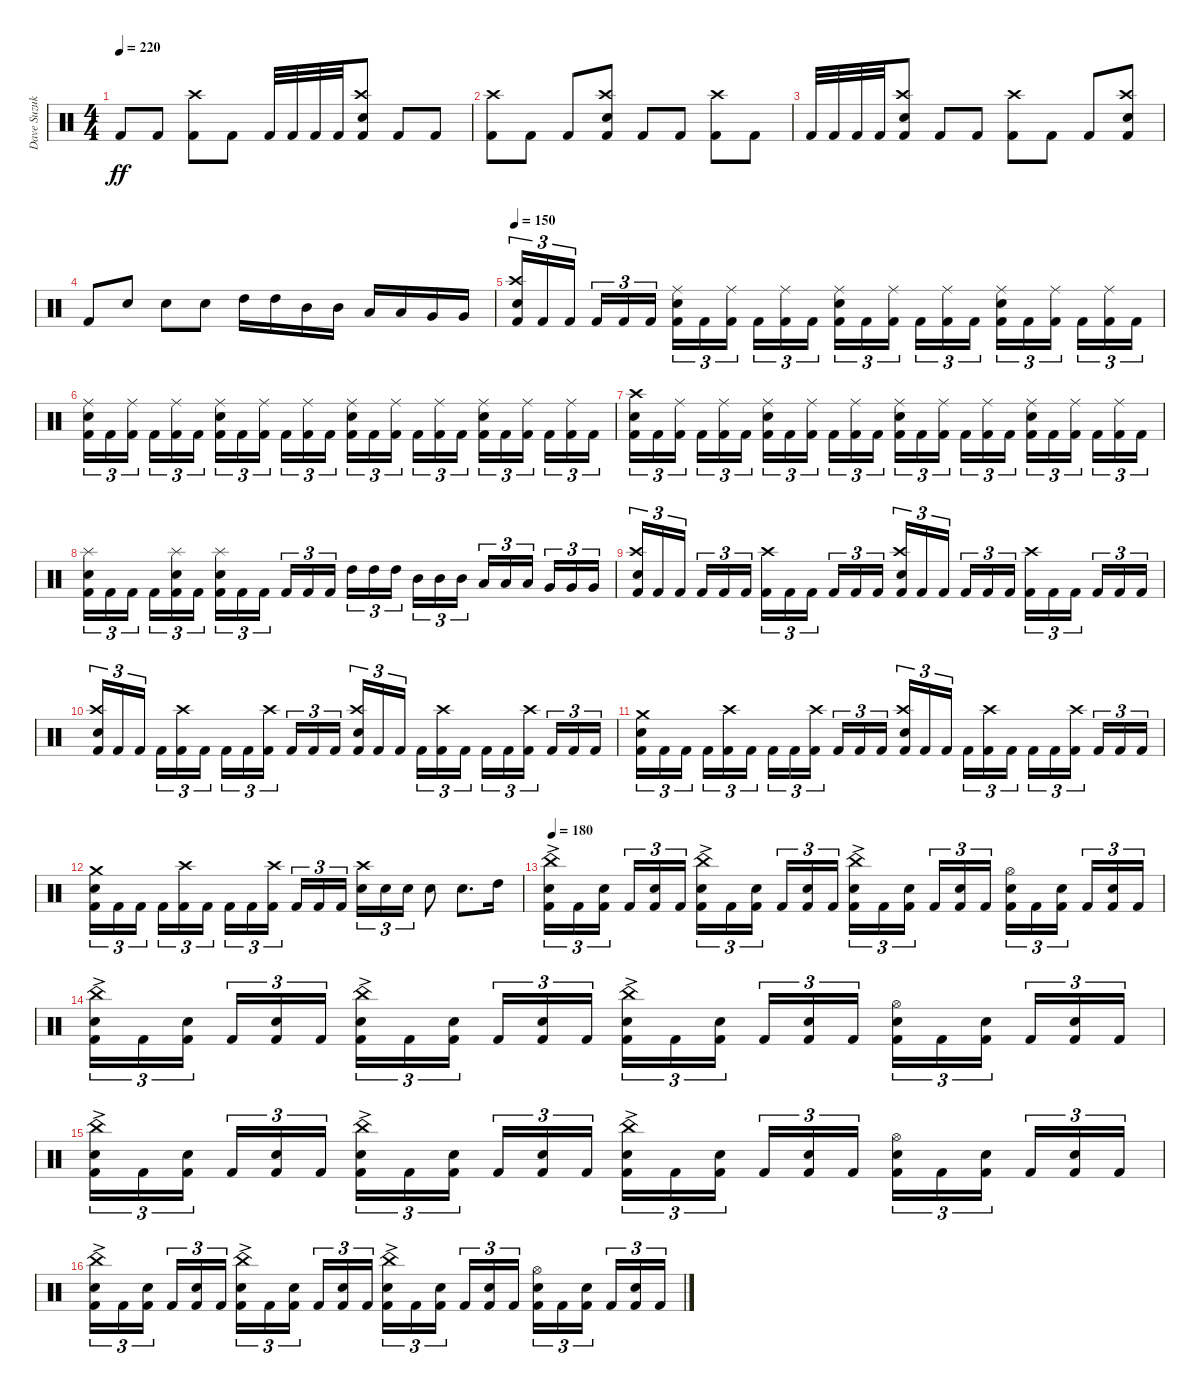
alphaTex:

\track ("Dave Suzuki - Drums" "Dave Suzuk") {instrument percussion}
\staff {score}
\articulation defaults
\ts (4 4)
\tempo 220
\clef neutral
\ks c "Kick (hit) 2".8{dy ff} "Kick (hit) 2".8
("Crash high (hit)" "Kick (hit) 2").8 "Kick (hit) 2".8 "Kick (hit) 2".32 "Kick (hit) 2".32 "Kick (hit) 2".32 "Kick (hit) 2".32 ("Crash high (hit)" "Electric Snare (hit)" "Kick (hit) 2").8 "Kick (hit) 2".8 "Kick (hit) 2".8 |
("Crash high (hit)" "Kick (hit) 2").8 "Kick (hit) 2".8 "Kick (hit) 2".8 ("Crash high (hit)" "Electric Snare (hit)" "Kick (hit) 2").8 "Kick (hit) 2".8 "Kick (hit) 2".8 ("Crash high (hit)" "Kick (hit) 2").8 "Kick (hit) 2".8 |
"Kick (hit) 2".32 "Kick (hit) 2".32 "Kick (hit) 2".32 "Kick (hit) 2".32 ("Crash high (hit)" "Electric Snare (hit)" "Kick (hit) 2").8 "Kick (hit) 2".8 "Kick (hit) 2".8 ("Crash high (hit)" "Kick (hit) 2").8 "Kick (hit) 2".8 "Kick (hit) 2".8 ("Crash high (hit)" "Electric Snare (hit)" "Kick (hit) 2").8 |
"Kick (hit) 2".8 "Electric Snare (hit)".8 "Electric Snare (hit)".8 "Electric Snare (hit)".8 "High Tom (hit)".16 "High Tom (hit)".16 "Mid Tom (hit)".16 "Mid Tom (hit)".16 "Low Tom (hit)".16 "Low Tom (hit)".16 "Very Low Tom (hit)".16 "Very Low Tom (hit)".16 |
\tempo 150
("Crash high (hit)" "Electric Snare (hit)" "Kick (hit) 2").16{tu (3 2)} "Kick (hit) 2".16{tu (3 2)} "Kick (hit) 2".16{tu (3 2) beam splitsecondary} "Kick (hit) 2".16{tu (3 2)} "Kick (hit) 2".16{tu (3 2)} "Kick (hit) 2".16{tu (3 2)} ("Ride (middle)" "Electric Snare (hit)" "Kick (hit) 2").16{tu (3 2)} "Kick (hit) 2".16{tu (3 2)} ("Ride (middle)" "Kick (hit) 2").16{tu (3 2) beam splitsecondary} "Kick (hit) 2".16{tu (3 2)} ("Ride (middle)" "Kick (hit) 2").16{tu (3 2)} "Kick (hit) 2".16{tu (3 2)} ("Ride (middle)" "Electric Snare (hit)" "Kick (hit) 2").16{tu (3 2)} "Kick (hit) 2".16{tu (3 2)} ("Ride (middle)" "Kick (hit) 2").16{tu (3 2) beam splitsecondary} "Kick (hit) 2".16{tu (3 2)} ("Ride (middle)" "Kick (hit) 2").16{tu (3 2)} "Kick (hit) 2".16{tu (3 2)} ("Ride (middle)" "Electric Snare (hit)" "Kick (hit) 2").16{tu (3 2)} "Kick (hit) 2".16{tu (3 2)} ("Ride (middle)" "Kick (hit) 2").16{tu (3 2) beam splitsecondary} "Kick (hit) 2".16{tu (3 2)} ("Ride (middle)" "Kick (hit) 2").16{tu (3 2)} "Kick (hit) 2".16{tu (3 2)} |
("Ride (middle)" "Electric Snare (hit)" "Kick (hit) 2").16{tu (3 2)} "Kick (hit) 2".16{tu (3 2)} ("Ride (middle)" "Kick (hit) 2").16{tu (3 2) beam splitsecondary} "Kick (hit) 2".16{tu (3 2)} ("Ride (middle)" "Kick (hit) 2").16{tu (3 2)} "Kick (hit) 2".16{tu (3 2)} ("Ride (middle)" "Electric Snare (hit)" "Kick (hit) 2").16{tu (3 2)} "Kick (hit) 2".16{tu (3 2)} ("Ride (middle)" "Kick (hit) 2").16{tu (3 2) beam splitsecondary} "Kick (hit) 2".16{tu (3 2)} ("Ride (middle)" "Kick (hit) 2").16{tu (3 2)} "Kick (hit) 2".16{tu (3 2)} ("Ride (middle)" "Electric Snare (hit)" "Kick (hit) 2").16{tu (3 2)} "Kick (hit) 2".16{tu (3 2)} ("Ride (middle)" "Kick (hit) 2").16{tu (3 2) beam splitsecondary} "Kick (hit) 2".16{tu (3 2)} ("Ride (middle)" "Kick (hit) 2").16{tu (3 2)} "Kick (hit) 2".16{tu (3 2)} ("Ride (middle)" "Electric Snare (hit)" "Kick (hit) 2").16{tu (3 2)} "Kick (hit) 2".16{tu (3 2)} ("Ride (middle)" "Kick (hit) 2").16{tu (3 2) beam splitsecondary} "Kick (hit) 2".16{tu (3 2)} ("Ride (middle)" "Kick (hit) 2").16{tu (3 2)} "Kick (hit) 2".16{tu (3 2)} |
("Crash high (hit)" "Electric Snare (hit)" "Kick (hit) 2").16{tu (3 2)} "Kick (hit) 2".16{tu (3 2)} ("Ride (middle)" "Kick (hit) 2").16{tu (3 2) beam splitsecondary} "Kick (hit) 2".16{tu (3 2)} ("Ride (middle)" "Kick (hit) 2").16{tu (3 2)} "Kick (hit) 2".16{tu (3 2)} ("Ride (middle)" "Electric Snare (hit)" "Kick (hit) 2").16{tu (3 2)} "Kick (hit) 2".16{tu (3 2)} ("Ride (middle)" "Kick (hit) 2").16{tu (3 2) beam splitsecondary} "Kick (hit) 2".16{tu (3 2)} ("Ride (middle)" "Kick (hit) 2").16{tu (3 2)} "Kick (hit) 2".16{tu (3 2)} ("Ride (middle)" "Electric Snare (hit)" "Kick (hit) 2").16{tu (3 2)} "Kick (hit) 2".16{tu (3 2)} ("Ride (middle)" "Kick (hit) 2").16{tu (3 2) beam splitsecondary} "Kick (hit) 2".16{tu (3 2)} ("Ride (middle)" "Kick (hit) 2").16{tu (3 2)} "Kick (hit) 2".16{tu (3 2)} ("Ride (middle)" "Electric Snare (hit)" "Kick (hit) 2").16{tu (3 2)} "Kick (hit) 2".16{tu (3 2)} ("Ride (middle)" "Kick (hit) 2").16{tu (3 2) beam splitsecondary} "Kick (hit) 2".16{tu (3 2)} ("Ride (middle)" "Kick (hit) 2").16{tu (3 2)} "Kick (hit) 2".16{tu (3 2)} |
("Splash (hit)" "Electric Snare (hit)" "Kick (hit) 2").16{tu (3 2)} "Kick (hit) 2".16{tu (3 2)} "Kick (hit) 2".16{tu (3 2) beam splitsecondary} "Kick (hit) 2".16{tu (3 2)} ("Splash (hit)" "Electric Snare (hit)" "Kick (hit) 2").16{tu (3 2)} "Kick (hit) 2".16{tu (3 2)} ("Splash (hit)" "Electric Snare (hit)" "Kick (hit) 2").16{tu (3 2)} "Kick (hit) 2".16{tu (3 2)} "Kick (hit) 2".16{tu (3 2) beam splitsecondary} "Kick (hit) 2".16{tu (3 2)} "Kick (hit) 2".16{tu (3 2)} "Kick (hit) 2".16{tu (3 2)} "High Tom (hit)".16{tu (3 2)} "High Tom (hit)".16{tu (3 2)} "High Tom (hit)".16{tu (3 2) beam splitsecondary} "Mid Tom (hit)".16{tu (3 2)} "Mid Tom (hit)".16{tu (3 2)} "Mid Tom (hit)".16{tu (3 2)} "Low Tom (hit)".16{tu (3 2)} "Low Tom (hit)".16{tu (3 2)} "Low Tom (hit)".16{tu (3 2) beam splitsecondary} "Very Low Tom (hit)".16{tu (3 2)} "Very Low Tom (hit)".16{tu (3 2)} "Very Low Tom (hit)".16{tu (3 2)} |
("Crash high (hit)" "Electric Snare (hit)" "Kick (hit) 2").16{tu (3 2)} "Kick (hit) 2".16{tu (3 2)} "Kick (hit) 2".16{tu (3 2) beam splitsecondary} "Kick (hit) 2".16{tu (3 2)} "Kick (hit) 2".16{tu (3 2)} "Kick (hit) 2".16{tu (3 2)} ("Crash high (hit)" "Kick (hit) 2").16{tu (3 2)} "Kick (hit) 2".16{tu (3 2)} "Kick (hit) 2".16{tu (3 2) beam splitsecondary} "Kick (hit) 2".16{tu (3 2)} "Kick (hit) 2".16{tu (3 2)} "Kick (hit) 2".16{tu (3 2)} ("Crash high (hit)" "Electric Snare (hit)" "Kick (hit) 2").16{tu (3 2)} "Kick (hit) 2".16{tu (3 2)} "Kick (hit) 2".16{tu (3 2) beam splitsecondary} "Kick (hit) 2".16{tu (3 2)} "Kick (hit) 2".16{tu (3 2)} "Kick (hit) 2".16{tu (3 2)} ("Crash high (hit)" "Kick (hit) 2").16{tu (3 2)} "Kick (hit) 2".16{tu (3 2)} "Kick (hit) 2".16{tu (3 2) beam splitsecondary} "Kick (hit) 2".16{tu (3 2)} "Kick (hit) 2".16{tu (3 2)} "Kick (hit) 2".16{tu (3 2)} |
("Crash high (hit)" "Electric Snare (hit)" "Kick (hit) 2").16{tu (3 2)} "Kick (hit) 2".16{tu (3 2)} "Kick (hit) 2".16{tu (3 2) beam splitsecondary} "Kick (hit) 2".16{tu (3 2)} ("Crash high (hit)" "Kick (hit) 2").16{tu (3 2)} "Kick (hit) 2".16{tu (3 2)} "Kick (hit) 2".16{tu (3 2)} "Kick (hit) 2".16{tu (3 2)} ("Crash high (hit)" "Kick (hit) 2").16{tu (3 2) beam splitsecondary} "Kick (hit) 2".16{tu (3 2)} "Kick (hit) 2".16{tu (3 2)} "Kick (hit) 2".16{tu (3 2)} ("Crash high (hit)" "Electric Snare (hit)" "Kick (hit) 2").16{tu (3 2)} "Kick (hit) 2".16{tu (3 2)} "Kick (hit) 2".16{tu (3 2) beam splitsecondary} "Kick (hit) 2".16{tu (3 2)} ("Crash high (hit)" "Kick (hit) 2").16{tu (3 2)} "Kick (hit) 2".16{tu (3 2)} "Kick (hit) 2".16{tu (3 2)} "Kick (hit) 2".16{tu (3 2)} ("Crash high (hit)" "Kick (hit) 2").16{tu (3 2) beam splitsecondary} "Kick (hit) 2".16{tu (3 2)} "Kick (hit) 2".16{tu (3 2)} "Kick (hit) 2".16{tu (3 2)} |
("Crash medium (hit)" "Electric Snare (hit)" "Kick (hit) 2").16{tu (3 2)} "Kick (hit) 2".16{tu (3 2)} "Kick (hit) 2".16{tu (3 2) beam splitsecondary} "Kick (hit) 2".16{tu (3 2)} ("Crash high (hit)" "Kick (hit) 2").16{tu (3 2)} "Kick (hit) 2".16{tu (3 2)} "Kick (hit) 2".16{tu (3 2)} "Kick (hit) 2".16{tu (3 2)} ("Crash high (hit)" "Kick (hit) 2").16{tu (3 2) beam splitsecondary} "Kick (hit) 2".16{tu (3 2)} "Kick (hit) 2".16{tu (3 2)} "Kick (hit) 2".16{tu (3 2)} ("Crash high (hit)" "Electric Snare (hit)" "Kick (hit) 2").16{tu (3 2)} "Kick (hit) 2".16{tu (3 2)} "Kick (hit) 2".16{tu (3 2) beam splitsecondary} "Kick (hit) 2".16{tu (3 2)} ("Crash high (hit)" "Kick (hit) 2").16{tu (3 2)} "Kick (hit) 2".16{tu (3 2)} "Kick (hit) 2".16{tu (3 2)} "Kick (hit) 2".16{tu (3 2)} ("Crash high (hit)" "Kick (hit) 2").16{tu (3 2) beam splitsecondary} "Kick (hit) 2".16{tu (3 2)} "Kick (hit) 2".16{tu (3 2)} "Kick (hit) 2".16{tu (3 2)} |
("Crash medium (hit)" "Electric Snare (hit)" "Kick (hit) 2").16{tu (3 2)} "Kick (hit) 2".16{tu (3 2)} "Kick (hit) 2".16{tu (3 2) beam splitsecondary} "Kick (hit) 2".16{tu (3 2)} ("Crash high (hit)" "Kick (hit) 2").16{tu (3 2)} "Kick (hit) 2".16{tu (3 2)} "Kick (hit) 2".16{tu (3 2)} "Kick (hit) 2".16{tu (3 2)} ("Crash high (hit)" "Kick (hit) 2").16{tu (3 2) beam splitsecondary} "Kick (hit) 2".16{tu (3 2)} "Kick (hit) 2".16{tu (3 2)} "Kick (hit) 2".16{tu (3 2)} ("Crash high (hit)" "Electric Snare (hit)").16{tu (3 2)} "Electric Snare (hit)".16{tu (3 2)} "Electric Snare (hit)".16{tu (3 2)} "Electric Snare (hit)".8 "Electric Snare (hit)".8{d} "High Tom (hit)".16 |
\tempo 180
("China (hit)" "Electric Snare (hit)"{ac} "Kick (hit) 2").16{tu (3 2)} "Kick (hit) 2".16{tu (3 2)} ("Electric Snare (hit)" "Kick (hit) 2").16{tu (3 2) beam splitsecondary} "Kick (hit) 2".16{tu (3 2)} ("Electric Snare (hit)" "Kick (hit) 2").16{tu (3 2)} "Kick (hit) 2".16{tu (3 2)} ("China (hit)" "Electric Snare (hit)"{ac} "Kick (hit) 2").16{tu (3 2)} "Kick (hit) 2".16{tu (3 2)} ("Electric Snare (hit)" "Kick (hit) 2").16{tu (3 2) beam splitsecondary} "Kick (hit) 2".16{tu (3 2)} ("Electric Snare (hit)" "Kick (hit) 2").16{tu (3 2)} "Kick (hit) 2".16{tu (3 2)} ("China (hit)" "Electric Snare (hit)"{ac} "Kick (hit) 2").16{tu (3 2)} "Kick (hit) 2".16{tu (3 2)} ("Electric Snare (hit)" "Kick (hit) 2").16{tu (3 2) beam splitsecondary} "Kick (hit) 2".16{tu (3 2)} ("Electric Snare (hit)" "Kick (hit) 2").16{tu (3 2)} "Kick (hit) 2".16{tu (3 2)} ("Hi-Hat (open)" "Electric Snare (hit)" "Kick (hit) 2").16{tu (3 2)} "Kick (hit) 2".16{tu (3 2)} ("Electric Snare (hit)" "Kick (hit) 2").16{tu (3 2) beam splitsecondary} "Kick (hit) 2".16{tu (3 2)} ("Electric Snare (hit)" "Kick (hit) 2").16{tu (3 2)} "Kick (hit) 2".16{tu (3 2)} |
("China (hit)" "Electric Snare (hit)"{ac} "Kick (hit) 2").16{tu (3 2)} "Kick (hit) 2".16{tu (3 2)} ("Electric Snare (hit)" "Kick (hit) 2").16{tu (3 2) beam splitsecondary} "Kick (hit) 2".16{tu (3 2)} ("Electric Snare (hit)" "Kick (hit) 2").16{tu (3 2)} "Kick (hit) 2".16{tu (3 2)} ("China (hit)" "Electric Snare (hit)"{ac} "Kick (hit) 2").16{tu (3 2)} "Kick (hit) 2".16{tu (3 2)} ("Electric Snare (hit)" "Kick (hit) 2").16{tu (3 2) beam splitsecondary} "Kick (hit) 2".16{tu (3 2)} ("Electric Snare (hit)" "Kick (hit) 2").16{tu (3 2)} "Kick (hit) 2".16{tu (3 2)} ("China (hit)" "Electric Snare (hit)"{ac} "Kick (hit) 2").16{tu (3 2)} "Kick (hit) 2".16{tu (3 2)} ("Electric Snare (hit)" "Kick (hit) 2").16{tu (3 2) beam splitsecondary} "Kick (hit) 2".16{tu (3 2)} ("Electric Snare (hit)" "Kick (hit) 2").16{tu (3 2)} "Kick (hit) 2".16{tu (3 2)} ("Hi-Hat (open)" "Electric Snare (hit)" "Kick (hit) 2").16{tu (3 2)} "Kick (hit) 2".16{tu (3 2)} ("Electric Snare (hit)" "Kick (hit) 2").16{tu (3 2) beam splitsecondary} "Kick (hit) 2".16{tu (3 2)} ("Electric Snare (hit)" "Kick (hit) 2").16{tu (3 2)} "Kick (hit) 2".16{tu (3 2)} |
("China (hit)" "Electric Snare (hit)"{ac} "Kick (hit) 2").16{tu (3 2)} "Kick (hit) 2".16{tu (3 2)} ("Electric Snare (hit)" "Kick (hit) 2").16{tu (3 2) beam splitsecondary} "Kick (hit) 2".16{tu (3 2)} ("Electric Snare (hit)" "Kick (hit) 2").16{tu (3 2)} "Kick (hit) 2".16{tu (3 2)} ("China (hit)" "Electric Snare (hit)"{ac} "Kick (hit) 2").16{tu (3 2)} "Kick (hit) 2".16{tu (3 2)} ("Electric Snare (hit)" "Kick (hit) 2").16{tu (3 2) beam splitsecondary} "Kick (hit) 2".16{tu (3 2)} ("Electric Snare (hit)" "Kick (hit) 2").16{tu (3 2)} "Kick (hit) 2".16{tu (3 2)} ("China (hit)" "Electric Snare (hit)"{ac} "Kick (hit) 2").16{tu (3 2)} "Kick (hit) 2".16{tu (3 2)} ("Electric Snare (hit)" "Kick (hit) 2").16{tu (3 2) beam splitsecondary} "Kick (hit) 2".16{tu (3 2)} ("Electric Snare (hit)" "Kick (hit) 2").16{tu (3 2)} "Kick (hit) 2".16{tu (3 2)} ("Hi-Hat (open)" "Electric Snare (hit)" "Kick (hit) 2").16{tu (3 2)} "Kick (hit) 2".16{tu (3 2)} ("Electric Snare (hit)" "Kick (hit) 2").16{tu (3 2) beam splitsecondary} "Kick (hit) 2".16{tu (3 2)} ("Electric Snare (hit)" "Kick (hit) 2").16{tu (3 2)} "Kick (hit) 2".16{tu (3 2)} |
("China (hit)" "Electric Snare (hit)"{ac} "Kick (hit) 2").16{tu (3 2)} "Kick (hit) 2".16{tu (3 2)} ("Electric Snare (hit)" "Kick (hit) 2").16{tu (3 2) beam splitsecondary} "Kick (hit) 2".16{tu (3 2)} ("Electric Snare (hit)" "Kick (hit) 2").16{tu (3 2)} "Kick (hit) 2".16{tu (3 2)} ("China (hit)" "Electric Snare (hit)"{ac} "Kick (hit) 2").16{tu (3 2)} "Kick (hit) 2".16{tu (3 2)} ("Electric Snare (hit)" "Kick (hit) 2").16{tu (3 2) beam splitsecondary} "Kick (hit) 2".16{tu (3 2)} ("Electric Snare (hit)" "Kick (hit) 2").16{tu (3 2)} "Kick (hit) 2".16{tu (3 2)} ("China (hit)" "Electric Snare (hit)"{ac} "Kick (hit) 2").16{tu (3 2)} "Kick (hit) 2".16{tu (3 2)} ("Electric Snare (hit)" "Kick (hit) 2").16{tu (3 2) beam splitsecondary} "Kick (hit) 2".16{tu (3 2)} ("Electric Snare (hit)" "Kick (hit) 2").16{tu (3 2)} "Kick (hit) 2".16{tu (3 2)} ("Hi-Hat (open)" "Electric Snare (hit)" "Kick (hit) 2").16{tu (3 2)} "Kick (hit) 2".16{tu (3 2)} ("Electric Snare (hit)" "Kick (hit) 2").16{tu (3 2) beam splitsecondary} "Kick (hit) 2".16{tu (3 2)} ("Electric Snare (hit)" "Kick (hit) 2").16{tu (3 2)} "Kick (hit) 2".16{tu (3 2)}
